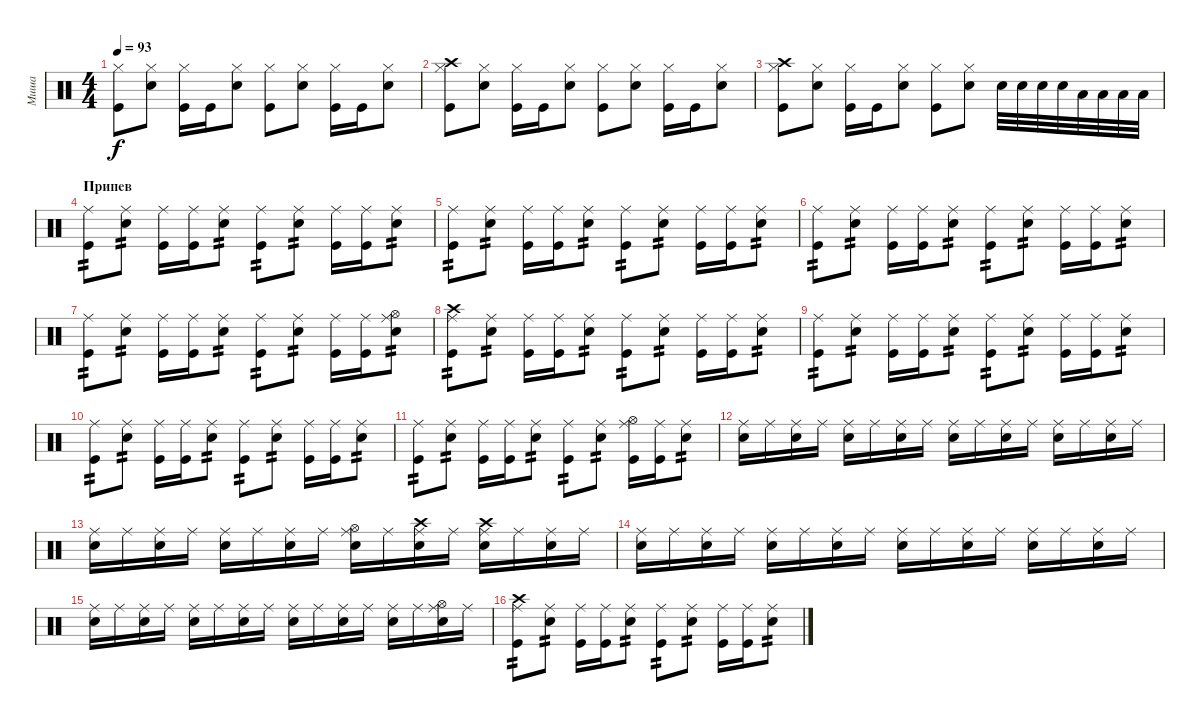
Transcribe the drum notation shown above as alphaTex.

\track ("Миша" "Миша") {instrument percussion}
\staff {score}
\articulation defaults
\ts (4 4)
\tempo 93
\clef neutral
\ks c
("Kick (hit)" "Hi-Hat (closed)").8{dy f} ("Electric Snare (hit)" "Hi-Hat (closed)").8 ("Kick (hit)" "Hi-Hat (closed)").16 "Kick (hit)".16 ("Electric Snare (hit)" "Hi-Hat (closed)").8 ("Kick (hit)" "Hi-Hat (closed)").8 ("Electric Snare (hit)" "Hi-Hat (closed)").8 ("Kick (hit)" "Hi-Hat (closed)").16 "Kick (hit)".16 ("Electric Snare (hit)" "Hi-Hat (closed)").8 |
("Kick (hit)" "Hi-Hat (closed)" "Crash high (hit)").8 ("Electric Snare (hit)" "Hi-Hat (closed)").8 ("Kick (hit)" "Hi-Hat (closed)").16 "Kick (hit)".16 ("Electric Snare (hit)" "Hi-Hat (closed)").8 ("Kick (hit)" "Hi-Hat (closed)").8 ("Electric Snare (hit)" "Hi-Hat (closed)").8 ("Kick (hit)" "Hi-Hat (closed)").16 "Kick (hit)".16 ("Electric Snare (hit)" "Hi-Hat (closed)").8 |
("Kick (hit)" "Hi-Hat (closed)" "Crash high (hit)").8 ("Electric Snare (hit)" "Hi-Hat (closed)").8 ("Kick (hit)" "Hi-Hat (closed)").16 "Kick (hit)".16 ("Electric Snare (hit)" "Hi-Hat (closed)").8 ("Kick (hit)" "Hi-Hat (closed)").8 ("Electric Snare (hit)" "Hi-Hat (closed)").8 "Electric Snare (hit)".32 "Electric Snare (hit)".32 "Electric Snare (hit)".32 "Electric Snare (hit)".32 "Low Tom (hit)".32 "Low Tom (hit)".32 "Low Tom (hit)".32 "Low Tom (hit)".32 |
\section ("" "Припев")
("Kick (hit)" "Ride (middle)").8{tp 2} ("Electric Snare (hit)" "Ride (middle)").8{tp 2} ("Kick (hit)" "Ride (middle)").16 ("Kick (hit)" "Ride (middle)").16 ("Electric Snare (hit)" "Ride (middle)").8{tp 2} ("Kick (hit)" "Ride (middle)").8{tp 2} ("Electric Snare (hit)" "Ride (middle)").8{tp 2} ("Kick (hit)" "Ride (middle)").16 ("Kick (hit)" "Ride (middle)").16 ("Electric Snare (hit)" "Ride (middle)").8{tp 2} |
("Kick (hit)" "Ride (middle)").8{tp 2} ("Electric Snare (hit)" "Ride (middle)").8{tp 2} ("Kick (hit)" "Ride (middle)").16 ("Kick (hit)" "Ride (middle)").16 ("Electric Snare (hit)" "Ride (middle)").8{tp 2} ("Kick (hit)" "Ride (middle)").8{tp 2} ("Electric Snare (hit)" "Ride (middle)").8{tp 2} ("Kick (hit)" "Ride (middle)").16 ("Kick (hit)" "Ride (middle)").16 ("Electric Snare (hit)" "Ride (middle)").8{tp 2} |
("Kick (hit)" "Ride (middle)").8{tp 2} ("Electric Snare (hit)" "Ride (middle)").8{tp 2} ("Kick (hit)" "Ride (middle)").16 ("Kick (hit)" "Ride (middle)").16 ("Electric Snare (hit)" "Ride (middle)").8{tp 2} ("Kick (hit)" "Ride (middle)").8{tp 2} ("Electric Snare (hit)" "Ride (middle)").8{tp 2} ("Kick (hit)" "Ride (middle)").16 ("Kick (hit)" "Ride (middle)").16 ("Electric Snare (hit)" "Ride (middle)").8{tp 2} |
("Kick (hit)" "Ride (middle)").8{tp 2} ("Electric Snare (hit)" "Ride (middle)").8{tp 2} ("Kick (hit)" "Ride (middle)").16 ("Kick (hit)" "Ride (middle)").16 ("Electric Snare (hit)" "Ride (middle)").8{tp 2} ("Kick (hit)" "Ride (middle)").8{tp 2} ("Electric Snare (hit)" "Ride (middle)").8{tp 2} ("Kick (hit)" "Ride (middle)").16 ("Kick (hit)" "Ride (middle)").16 ("Electric Snare (hit)" "Ride (middle)" "Hi-Hat (open)").8{tp 2} |
("Kick (hit)" "Ride (middle)" "Crash high (hit)").8{tp 2} ("Electric Snare (hit)" "Ride (middle)").8{tp 2} ("Kick (hit)" "Ride (middle)").16 ("Kick (hit)" "Ride (middle)").16 ("Electric Snare (hit)" "Ride (middle)").8{tp 2} ("Kick (hit)" "Ride (middle)").8{tp 2} ("Electric Snare (hit)" "Ride (middle)").8{tp 2} ("Kick (hit)" "Ride (middle)").16 ("Kick (hit)" "Ride (middle)").16 ("Electric Snare (hit)" "Ride (middle)").8{tp 2} |
("Kick (hit)" "Ride (middle)").8{tp 2} ("Electric Snare (hit)" "Ride (middle)").8{tp 2} ("Kick (hit)" "Ride (middle)").16 ("Kick (hit)" "Ride (middle)").16 ("Electric Snare (hit)" "Ride (middle)").8{tp 2} ("Kick (hit)" "Ride (middle)").8{tp 2} ("Electric Snare (hit)" "Ride (middle)").8{tp 2} ("Kick (hit)" "Ride (middle)").16 ("Kick (hit)" "Ride (middle)").16 ("Electric Snare (hit)" "Ride (middle)").8{tp 2} |
("Kick (hit)" "Ride (middle)").8{tp 2} ("Electric Snare (hit)" "Ride (middle)").8{tp 2} ("Kick (hit)" "Ride (middle)").16 ("Kick (hit)" "Ride (middle)").16 ("Electric Snare (hit)" "Ride (middle)").8{tp 2} ("Kick (hit)" "Ride (middle)").8{tp 2} ("Electric Snare (hit)" "Ride (middle)").8{tp 2} ("Kick (hit)" "Ride (middle)").16 ("Kick (hit)" "Ride (middle)").16 ("Electric Snare (hit)" "Ride (middle)").8{tp 2} |
("Kick (hit)" "Ride (middle)").8{tp 2} ("Electric Snare (hit)" "Ride (middle)").8{tp 2} ("Kick (hit)" "Ride (middle)").16 ("Kick (hit)" "Ride (middle)").16 ("Electric Snare (hit)" "Ride (middle)").8{tp 2} ("Kick (hit)" "Ride (middle)").8{tp 2} ("Electric Snare (hit)" "Ride (middle)").8{tp 2} ("Kick (hit)" "Ride (middle)" "Hi-Hat (open)").16 ("Kick (hit)" "Ride (middle)").16 ("Electric Snare (hit)" "Ride (middle)").8{tp 2} |
("Ride (middle)" "Electric Snare (hit)").16 "Ride (middle)".16 ("Ride (middle)" "Electric Snare (hit)").16 "Ride (middle)".16 ("Ride (middle)" "Electric Snare (hit)").16 "Ride (middle)".16 ("Ride (middle)" "Electric Snare (hit)").16 "Ride (middle)".16 ("Ride (middle)" "Electric Snare (hit)").16 "Ride (middle)".16 ("Ride (middle)" "Electric Snare (hit)").16 "Ride (middle)".16 ("Ride (middle)" "Electric Snare (hit)").16 "Ride (middle)".16 ("Ride (middle)" "Electric Snare (hit)").16 "Ride (middle)".16 |
("Ride (middle)" "Electric Snare (hit)").16 "Ride (middle)".16 ("Ride (middle)" "Electric Snare (hit)").16 "Ride (middle)".16 ("Ride (middle)" "Electric Snare (hit)").16 "Ride (middle)".16 ("Ride (middle)" "Electric Snare (hit)").16 "Ride (middle)".16 ("Ride (middle)" "Electric Snare (hit)" "Hi-Hat (open)").16 "Ride (middle)".16 ("Ride (middle)" "Electric Snare (hit)" "Crash high (hit)").16 "Ride (middle)".16 ("Ride (middle)" "Electric Snare (hit)" "Crash high (hit)").16 "Ride (middle)".16 ("Ride (middle)" "Electric Snare (hit)").16 "Ride (middle)".16 |
("Ride (middle)" "Electric Snare (hit)").16 "Ride (middle)".16 ("Ride (middle)" "Electric Snare (hit)").16 "Ride (middle)".16 ("Ride (middle)" "Electric Snare (hit)").16 "Ride (middle)".16 ("Ride (middle)" "Electric Snare (hit)").16 "Ride (middle)".16 ("Ride (middle)" "Electric Snare (hit)").16 "Ride (middle)".16 ("Ride (middle)" "Electric Snare (hit)").16 "Ride (middle)".16 ("Ride (middle)" "Electric Snare (hit)").16 "Ride (middle)".16 ("Ride (middle)" "Electric Snare (hit)").16 "Ride (middle)".16 |
("Ride (middle)" "Electric Snare (hit)").16 "Ride (middle)".16 ("Ride (middle)" "Electric Snare (hit)").16 "Ride (middle)".16 ("Ride (middle)" "Electric Snare (hit)").16 "Ride (middle)".16 ("Ride (middle)" "Electric Snare (hit)").16 "Ride (middle)".16 ("Ride (middle)" "Electric Snare (hit)").16 "Ride (middle)".16 ("Ride (middle)" "Electric Snare (hit)").16 "Ride (middle)".16 ("Ride (middle)" "Electric Snare (hit)").16 "Ride (middle)".16 ("Ride (middle)" "Electric Snare (hit)" "Hi-Hat (open)").16 "Ride (middle)".16 |
("Kick (hit)" "Ride (middle)" "Crash high (hit)").8{tp 2} ("Electric Snare (hit)" "Ride (middle)").8{tp 2} ("Kick (hit)" "Ride (middle)").16 ("Kick (hit)" "Ride (middle)").16 ("Electric Snare (hit)" "Ride (middle)").8{tp 2} ("Kick (hit)" "Ride (middle)").8{tp 2} ("Electric Snare (hit)" "Ride (middle)").8{tp 2} ("Kick (hit)" "Ride (middle)").16 ("Kick (hit)" "Ride (middle)").16 ("Electric Snare (hit)" "Ride (middle)").8{tp 2}
